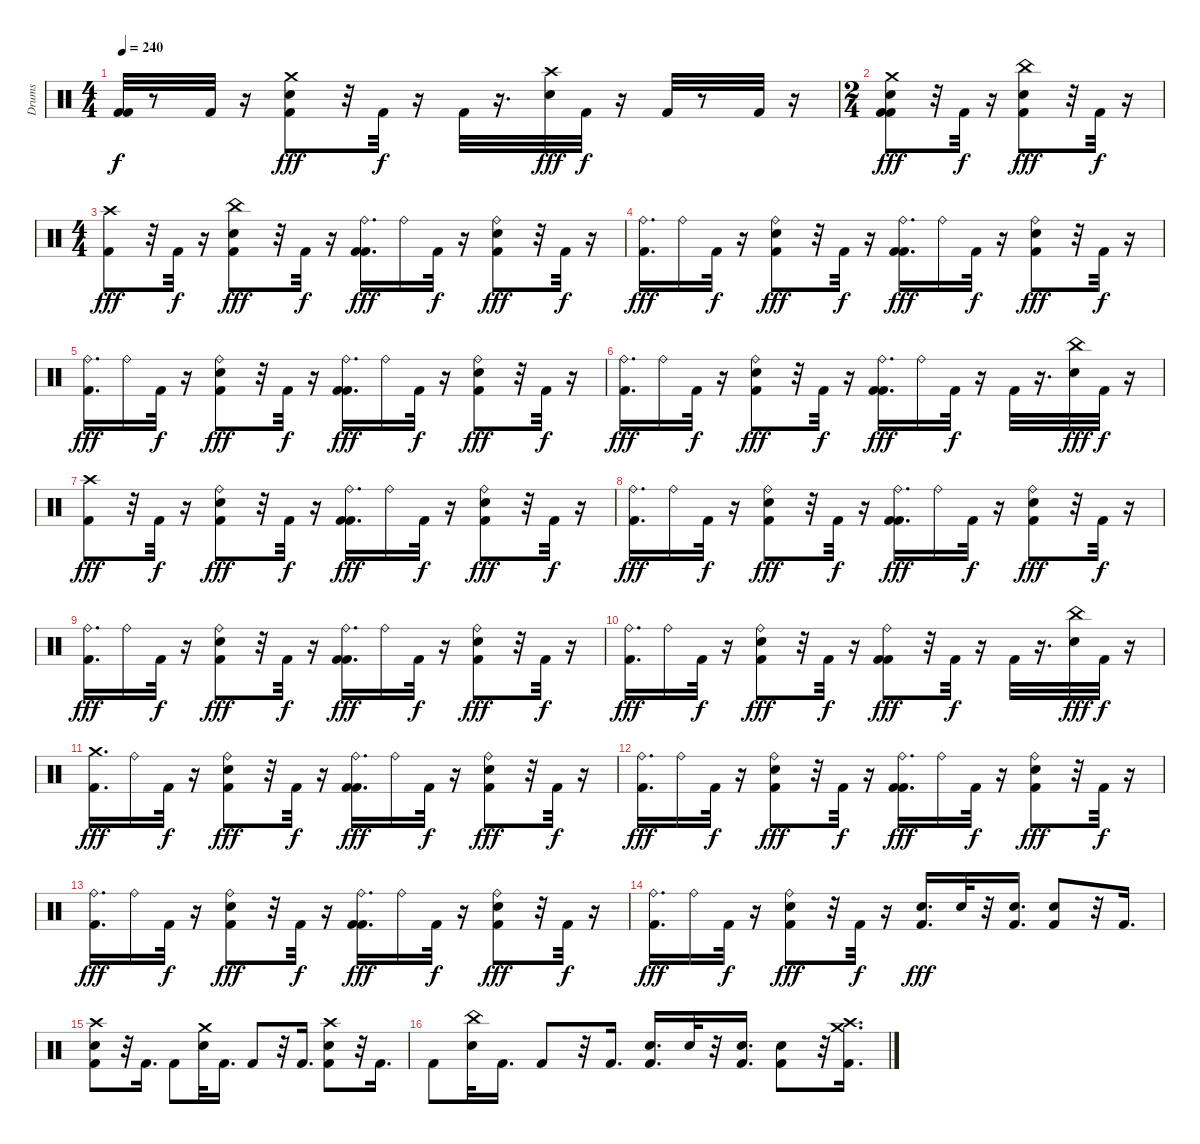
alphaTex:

\track ("Drums" "Drums") {instrument percussion}
\staff {score}
\articulation defaults
\ts (4 4)
\tempo 240
\clef neutral
\ks c
("Kick (hit) 2" "Kick (hit) 2").32{dy f} r.8 "Kick (hit) 2".32 r.16 ("Electric Snare (hit)" "Crash medium (hit)" "Kick (hit) 2").8{dy fff} r.32 "Kick (hit) 2".32{dy f} r.16 "Kick (hit) 2".32 r.16{d} ("Electric Snare (hit)" "Crash high (hit)").32{dy fff} "Kick (hit) 2".32{dy f} r.16 "Kick (hit) 2".32 r.8 "Kick (hit) 2".32 r.16 |
\ts (2 4)
("Kick (hit) 2" "Electric Snare (hit)" "Kick (hit) 2" "Crash medium (hit)").8{dy fff} r.32 "Kick (hit) 2".32{dy f} r.16 ("China (hit)" "Electric Snare (hit)" "Kick (hit) 2").8{dy fff} r.32 "Kick (hit) 2".32{dy f} r.16 |
\ts (4 4)
("Kick (hit) 2" "Crash high (hit)").8{dy fff} r.32 "Kick (hit) 2".32{dy f} r.16 ("Kick (hit) 2" "Electric Snare (hit)" "China (hit)").8{dy fff} r.32 "Kick (hit) 2".32{dy f} r.16 ("Ride (bell)" "Kick (hit) 2" "Kick (hit) 2").16{d dy fff} "Ride (bell)".16 "Kick (hit) 2".32{dy f} r.16 ("Ride (bell)" "Kick (hit) 2" "Electric Snare (hit)").8{dy fff} r.32 "Kick (hit) 2".32{dy f} r.16 |
("Kick (hit) 2" "Ride (bell)").16{d dy fff} "Ride (bell)".16 "Kick (hit) 2".32{dy f} r.16 ("Electric Snare (hit)" "Ride (bell)" "Kick (hit) 2").8{dy fff} r.32 "Kick (hit) 2".32{dy f} r.16 ("Ride (bell)" "Kick (hit) 2" "Kick (hit) 2").16{d dy fff} "Ride (bell)".16 "Kick (hit) 2".32{dy f} r.16 ("Ride (bell)" "Electric Snare (hit)" "Kick (hit) 2").8{dy fff} r.32 "Kick (hit) 2".32{dy f} r.16 |
("Kick (hit) 2" "Ride (bell)").16{d dy fff} "Ride (bell)".16 "Kick (hit) 2".32{dy f} r.16 ("Kick (hit) 2" "Electric Snare (hit)" "Ride (bell)").8{dy fff} r.32 "Kick (hit) 2".32{dy f} r.16 ("Kick (hit) 2" "Kick (hit) 2" "Ride (bell)").16{d dy fff} "Ride (bell)".16 "Kick (hit) 2".32{dy f} r.16 ("Electric Snare (hit)" "Ride (bell)" "Kick (hit) 2").8{dy fff} r.32 "Kick (hit) 2".32{dy f} r.16 |
("Ride (bell)" "Kick (hit) 2").16{d dy fff} "Ride (bell)".16 "Kick (hit) 2".32{dy f} r.16 ("Electric Snare (hit)" "Kick (hit) 2" "Ride (bell)").8{dy fff} r.32 "Kick (hit) 2".32{dy f} r.16 ("Kick (hit) 2" "Kick (hit) 2" "Ride (bell)").16{d dy fff} "Ride (bell)".16 "Kick (hit) 2".32{dy f} r.16 "Kick (hit) 2".32 r.16{d} ("China (hit)" "Electric Snare (hit)").32{dy fff} "Kick (hit) 2".32{dy f} r.16 |
("Crash high (hit)" "Kick (hit) 2").8{dy fff} r.32 "Kick (hit) 2".32{dy f} r.16 ("Kick (hit) 2" "Electric Snare (hit)" "Ride (bell)").8{dy fff} r.32 "Kick (hit) 2".32{dy f} r.16 ("Kick (hit) 2" "Ride (bell)" "Kick (hit) 2").16{d dy fff} "Ride (bell)".16 "Kick (hit) 2".32{dy f} r.16 ("Kick (hit) 2" "Ride (bell)" "Electric Snare (hit)").8{dy fff} r.32 "Kick (hit) 2".32{dy f} r.16 |
("Ride (bell)" "Kick (hit) 2").16{d dy fff} "Ride (bell)".16 "Kick (hit) 2".32{dy f} r.16 ("Electric Snare (hit)" "Ride (bell)" "Kick (hit) 2").8{dy fff} r.32 "Kick (hit) 2".32{dy f} r.16 ("Kick (hit) 2" "Kick (hit) 2" "Ride (bell)").16{d dy fff} "Ride (bell)".16 "Kick (hit) 2".32{dy f} r.16 ("Kick (hit) 2" "Electric Snare (hit)" "Ride (bell)").8{dy fff} r.32 "Kick (hit) 2".32{dy f} r.16 |
("Kick (hit) 2" "Ride (bell)").16{d dy fff} "Ride (bell)".16 "Kick (hit) 2".32{dy f} r.16 ("Kick (hit) 2" "Ride (bell)" "Electric Snare (hit)").8{dy fff} r.32 "Kick (hit) 2".32{dy f} r.16 ("Kick (hit) 2" "Ride (bell)" "Kick (hit) 2").16{d dy fff} "Ride (bell)".16 "Kick (hit) 2".32{dy f} r.16 ("Ride (bell)" "Electric Snare (hit)" "Kick (hit) 2").8{dy fff} r.32 "Kick (hit) 2".32{dy f} r.16 |
("Ride (bell)" "Kick (hit) 2").16{d dy fff} "Ride (bell)".16 "Kick (hit) 2".32{dy f} r.16 ("Ride (bell)" "Kick (hit) 2" "Electric Snare (hit)").8{dy fff} r.32 "Kick (hit) 2".32{dy f} r.16 ("Ride (bell)" "Kick (hit) 2" "Kick (hit) 2").8{dy fff} r.32 "Kick (hit) 2".32{dy f} r.16 "Kick (hit) 2".32 r.16{d} ("Electric Snare (hit)" "China (hit)").32{dy fff} "Kick (hit) 2".32{dy f} r.16 |
("Kick (hit) 2" "Crash medium (hit)").16{d dy fff} "Ride (bell)".16 "Kick (hit) 2".32{dy f} r.16 ("Electric Snare (hit)" "Kick (hit) 2" "Ride (bell)").8{dy fff} r.32 "Kick (hit) 2".32{dy f} r.16 ("Kick (hit) 2" "Kick (hit) 2" "Ride (bell)").16{d dy fff} "Ride (bell)".16 "Kick (hit) 2".32{dy f} r.16 ("Kick (hit) 2" "Electric Snare (hit)" "Ride (bell)").8{dy fff} r.32 "Kick (hit) 2".32{dy f} r.16 |
("Ride (bell)" "Kick (hit) 2").16{d dy fff} "Ride (bell)".16 "Kick (hit) 2".32{dy f} r.16 ("Ride (bell)" "Kick (hit) 2" "Electric Snare (hit)").8{dy fff} r.32 "Kick (hit) 2".32{dy f} r.16 ("Kick (hit) 2" "Kick (hit) 2" "Ride (bell)").16{d dy fff} "Ride (bell)".16 "Kick (hit) 2".32{dy f} r.16 ("Ride (bell)" "Kick (hit) 2" "Electric Snare (hit)").8{dy fff} r.32 "Kick (hit) 2".32{dy f} r.16 |
("Kick (hit) 2" "Ride (bell)").16{d dy fff} "Ride (bell)".16 "Kick (hit) 2".32{dy f} r.16 ("Kick (hit) 2" "Ride (bell)" "Electric Snare (hit)").8{dy fff} r.32 "Kick (hit) 2".32{dy f} r.16 ("Kick (hit) 2" "Ride (bell)" "Kick (hit) 2").16{d dy fff} "Ride (bell)".16 "Kick (hit) 2".32{dy f} r.16 ("Electric Snare (hit)" "Kick (hit) 2" "Ride (bell)").8{dy fff} r.32 "Kick (hit) 2".32{dy f} r.16 |
("Kick (hit) 2" "Ride (bell)").16{d dy fff} "Ride (bell)".16 "Kick (hit) 2".32{dy f} r.16 ("Kick (hit) 2" "Ride (bell)" "Electric Snare (hit)").8{dy fff} r.32 "Kick (hit) 2".32{dy f} r.16 ("Kick (hit) 2" "Electric Snare (hit)").16{d dy fff} "Electric Snare (hit)".32 r.32 ("Electric Snare (hit)" "Kick (hit) 2").16{d} ("Electric Snare (hit)" "Kick (hit) 2").8 r.32 "Kick (hit) 2".16{d} |
("Electric Snare (hit)" "Kick (hit) 2" "Crash high (hit)").8 r.32 "Kick (hit) 2".16{d} "Kick (hit) 2".8 ("Crash medium (hit)" "Electric Snare (hit)").32 "Kick (hit) 2".16{d} "Kick (hit) 2".8 r.32 "Kick (hit) 2".16{d} ("Kick (hit) 2" "Crash high (hit)" "Electric Snare (hit)").8 r.32 "Kick (hit) 2".16{d} |
"Kick (hit) 2".8 ("Electric Snare (hit)" "China (hit)").32 "Kick (hit) 2".16{d} "Kick (hit) 2".8 r.32 "Kick (hit) 2".16{d} ("Kick (hit) 2" "Electric Snare (hit)").16{d} "Electric Snare (hit)".32 r.32 ("Electric Snare (hit)" "Kick (hit) 2").16{d} ("Electric Snare (hit)" "Kick (hit) 2").8 r.32 ("Kick (hit) 2" "Crash medium (hit)" "Crash high (hit)").16{d}
